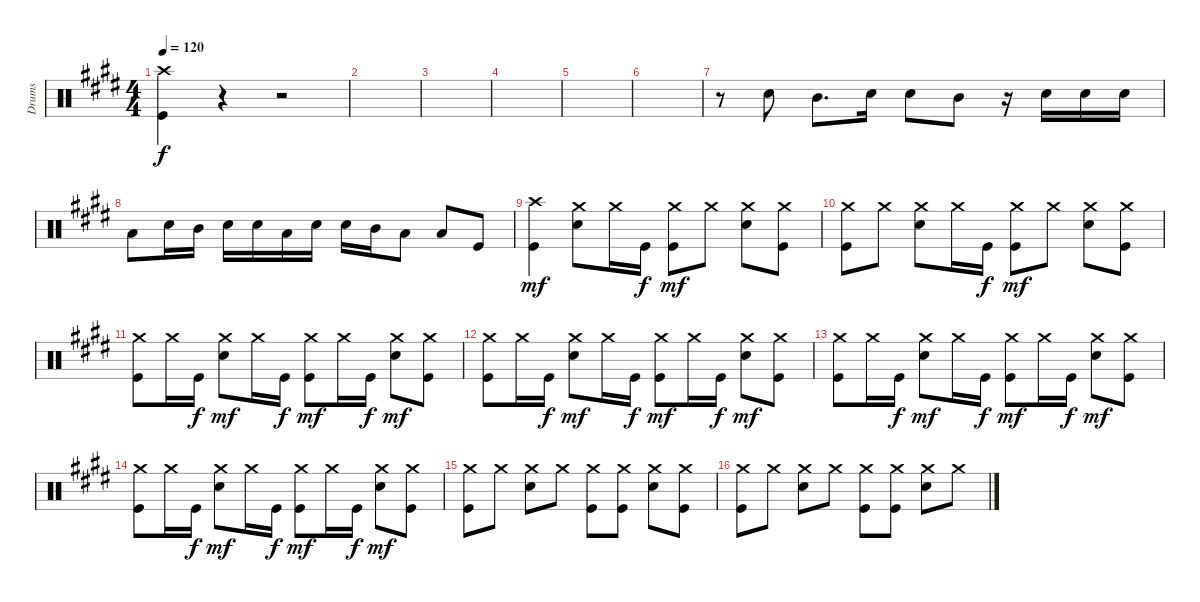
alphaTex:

\track ("Drums" "Drums") {instrument percussion}
\staff {score}
\articulation defaults
\ts (4 4)
\tempo 120
\clef neutral
\ks e
("Crash high (hit)" "Kick (hit)").4{dy f} r.4 r.2 |
|
|
|
|
|
r.8 "Snare (hit) 2".8 "Mid Tom (hit)".8{d} "Snare (hit) 2".16 "Snare (hit) 2".8 "Mid Tom (hit)".8 r.16 "Snare (hit) 2".16 "Snare (hit) 2".16 "Snare (hit) 2".16 |
"Low Tom (hit)".8 "Snare (hit) 2".16 "Mid Tom (hit)".16 "Snare (hit) 2".16 "Snare (hit) 2".16 "Low Tom (hit)".16 "Snare (hit) 2".16 "Snare (hit) 2".16 "Mid Tom (hit)".16 "Low Tom (hit)".8 "Low Tom (hit)".8 "Kick (hit)".8 |
("Crash high (hit)" "Kick (hit)").4{dy mf} ("Crash medium (hit)" "Snare (hit) 2").8 "Crash medium (hit)".16 "Kick (hit)".16{dy f} ("Crash medium (hit)" "Kick (hit)").8{dy mf} "Crash medium (hit)".8 ("Crash medium (hit)" "Snare (hit) 2").8 ("Crash medium (hit)" "Kick (hit)").8 |
("Crash medium (hit)" "Kick (hit)").8 "Crash medium (hit)".8 ("Crash medium (hit)" "Snare (hit) 2").8 "Crash medium (hit)".16 "Kick (hit)".16{dy f} ("Crash medium (hit)" "Kick (hit)").8{dy mf} "Crash medium (hit)".8 ("Crash medium (hit)" "Snare (hit) 2").8 ("Crash medium (hit)" "Kick (hit)").8 |
("Crash medium (hit)" "Kick (hit)").8 "Crash medium (hit)".16 "Kick (hit)".16{dy f} ("Crash medium (hit)" "Snare (hit) 2").8{dy mf} "Crash medium (hit)".16 "Kick (hit)".16{dy f} ("Crash medium (hit)" "Kick (hit)").8{dy mf} "Crash medium (hit)".16 "Kick (hit)".16{dy f} ("Crash medium (hit)" "Snare (hit) 2").8{dy mf} ("Crash medium (hit)" "Kick (hit)").8 |
("Crash medium (hit)" "Kick (hit)").8 "Crash medium (hit)".16 "Kick (hit)".16{dy f} ("Crash medium (hit)" "Snare (hit) 2").8{dy mf} "Crash medium (hit)".16 "Kick (hit)".16{dy f} ("Crash medium (hit)" "Kick (hit)").8{dy mf} "Crash medium (hit)".16 "Kick (hit)".16{dy f} ("Crash medium (hit)" "Snare (hit) 2").8{dy mf} ("Crash medium (hit)" "Kick (hit)").8 |
("Crash medium (hit)" "Kick (hit)").8 "Crash medium (hit)".16 "Kick (hit)".16{dy f} ("Crash medium (hit)" "Snare (hit) 2").8{dy mf} "Crash medium (hit)".16 "Kick (hit)".16{dy f} ("Crash medium (hit)" "Kick (hit)").8{dy mf} "Crash medium (hit)".16 "Kick (hit)".16{dy f} ("Crash medium (hit)" "Snare (hit) 2").8{dy mf} ("Crash medium (hit)" "Kick (hit)").8 |
("Crash medium (hit)" "Kick (hit)").8 "Crash medium (hit)".16 "Kick (hit)".16{dy f} ("Crash medium (hit)" "Snare (hit) 2").8{dy mf} "Crash medium (hit)".16 "Kick (hit)".16{dy f} ("Crash medium (hit)" "Kick (hit)").8{dy mf} "Crash medium (hit)".16 "Kick (hit)".16{dy f} ("Crash medium (hit)" "Snare (hit) 2").8{dy mf} ("Crash medium (hit)" "Kick (hit)").8 |
("Crash medium (hit)" "Kick (hit)").8 "Crash medium (hit)".8 ("Crash medium (hit)" "Snare (hit) 2").8 "Crash medium (hit)".8 ("Crash medium (hit)" "Kick (hit)").8 ("Crash medium (hit)" "Kick (hit)").8 ("Crash medium (hit)" "Snare (hit) 2").8 ("Crash medium (hit)" "Kick (hit)").8 |
("Crash medium (hit)" "Kick (hit)").8 "Crash medium (hit)".8 ("Crash medium (hit)" "Snare (hit) 2").8 "Crash medium (hit)".8 ("Crash medium (hit)" "Kick (hit)").8 ("Crash medium (hit)" "Kick (hit)").8 ("Crash medium (hit)" "Snare (hit) 2").8 "Crash medium (hit)".8
